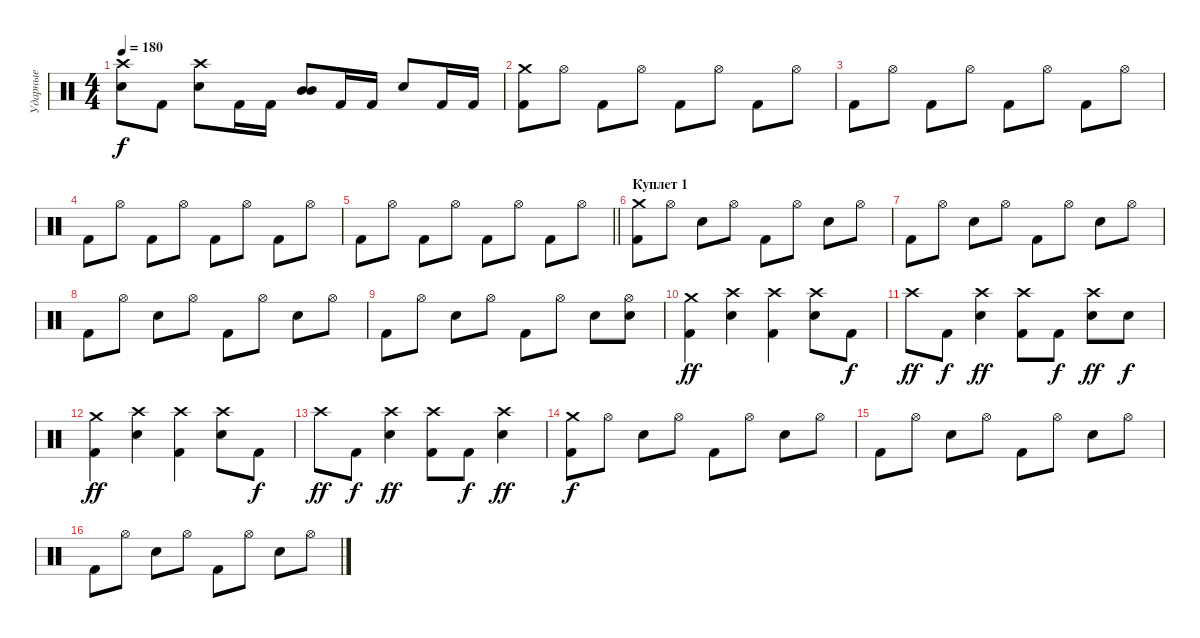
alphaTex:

\track ("Ударные" "Ударные") {instrument percussion}
\staff {score}
\articulation defaults
\ts (4 4)
\tempo 180
\clef neutral
\ks c
("Crash high (hit)" "Snare (hit) 2").8{dy f} "Kick (hit) 2".8 ("Crash high (hit)" "Snare (hit) 2").8 "Kick (hit) 2".16 "Kick (hit) 2".16 ("Mid Tom (hit)" "Mid Tom (hit)").8 "Kick (hit) 2".16 "Kick (hit) 2".16 "Snare (hit) 2".8 "Kick (hit) 2".16 "Kick (hit) 2".16 |
("Crash medium (hit)" "Kick (hit) 2").8 "Hi-Hat (open)".8 "Kick (hit) 2".8 "Hi-Hat (open)".8 "Kick (hit) 2".8 "Hi-Hat (open)".8 "Kick (hit) 2".8 "Hi-Hat (open)".8 |
"Kick (hit) 2".8 "Hi-Hat (open)".8 "Kick (hit) 2".8 "Hi-Hat (open)".8 "Kick (hit) 2".8 "Hi-Hat (open)".8 "Kick (hit) 2".8 "Hi-Hat (open)".8 |
"Kick (hit) 2".8 "Hi-Hat (open)".8 "Kick (hit) 2".8 "Hi-Hat (open)".8 "Kick (hit) 2".8 "Hi-Hat (open)".8 "Kick (hit) 2".8 "Hi-Hat (open)".8 |
\barLineRight lightlight "Kick (hit) 2".8 "Hi-Hat (open)".8 "Kick (hit) 2".8 "Hi-Hat (open)".8 "Kick (hit) 2".8 "Hi-Hat (open)".8 "Kick (hit) 2".8 "Hi-Hat (open)".8
|
\section ("" "Куплет 1")
("Crash medium (hit)" "Kick (hit) 2").8 "Hi-Hat (open)".8 "Snare (hit) 2".8 "Hi-Hat (open)".8 "Kick (hit) 2".8 "Hi-Hat (open)".8 "Snare (hit) 2".8 "Hi-Hat (open)".8 |
"Kick (hit) 2".8 "Hi-Hat (open)".8 "Snare (hit) 2".8 "Hi-Hat (open)".8 "Kick (hit) 2".8 "Hi-Hat (open)".8 "Snare (hit) 2".8 "Hi-Hat (open)".8 |
"Kick (hit) 2".8 "Hi-Hat (open)".8 "Snare (hit) 2".8 "Hi-Hat (open)".8 "Kick (hit) 2".8 "Hi-Hat (open)".8 "Snare (hit) 2".8 "Hi-Hat (open)".8 |
"Kick (hit) 2".8 "Hi-Hat (open)".8 "Snare (hit) 2".8 "Hi-Hat (open)".8 "Kick (hit) 2".8 "Hi-Hat (open)".8 "Snare (hit) 2".8 ("Hi-Hat (open)" "Snare (hit) 2").8 |
("Crash medium (hit)" "Kick (hit) 2").4{dy ff} ("Crash high (hit)" "Snare (hit) 2").4 ("Crash high (hit)" "Kick (hit) 2").4 ("Crash high (hit)" "Snare (hit) 2").8 "Kick (hit) 2".8{dy f} |
"Crash high (hit)".8{dy ff} "Kick (hit) 2".8{dy f} ("Crash high (hit)" "Snare (hit) 2").4{dy ff} ("Crash high (hit)" "Kick (hit) 2").8 "Kick (hit) 2".8{dy f} ("Crash high (hit)" "Snare (hit) 2").8{dy ff} "Snare (hit) 2".8{dy f} |
("Crash medium (hit)" "Kick (hit) 2").4{dy ff} ("Crash high (hit)" "Snare (hit) 2").4 ("Crash high (hit)" "Kick (hit) 2").4 ("Crash high (hit)" "Snare (hit) 2").8 "Kick (hit) 2".8{dy f} |
"Crash high (hit)".8{dy ff} "Kick (hit) 2".8{dy f} ("Crash high (hit)" "Snare (hit) 2").4{dy ff} ("Crash high (hit)" "Kick (hit) 2").8 "Kick (hit) 2".8{dy f} ("Crash high (hit)" "Snare (hit) 2").4{dy ff} |
("Crash medium (hit)" "Kick (hit) 2").8{dy f} "Hi-Hat (open)".8 "Snare (hit) 2".8 "Hi-Hat (open)".8 "Kick (hit) 2".8 "Hi-Hat (open)".8 "Snare (hit) 2".8 "Hi-Hat (open)".8 |
"Kick (hit) 2".8 "Hi-Hat (open)".8 "Snare (hit) 2".8 "Hi-Hat (open)".8 "Kick (hit) 2".8 "Hi-Hat (open)".8 "Snare (hit) 2".8 "Hi-Hat (open)".8 |
"Kick (hit) 2".8 "Hi-Hat (open)".8 "Snare (hit) 2".8 "Hi-Hat (open)".8 "Kick (hit) 2".8 "Hi-Hat (open)".8 "Snare (hit) 2".8 "Hi-Hat (open)".8
